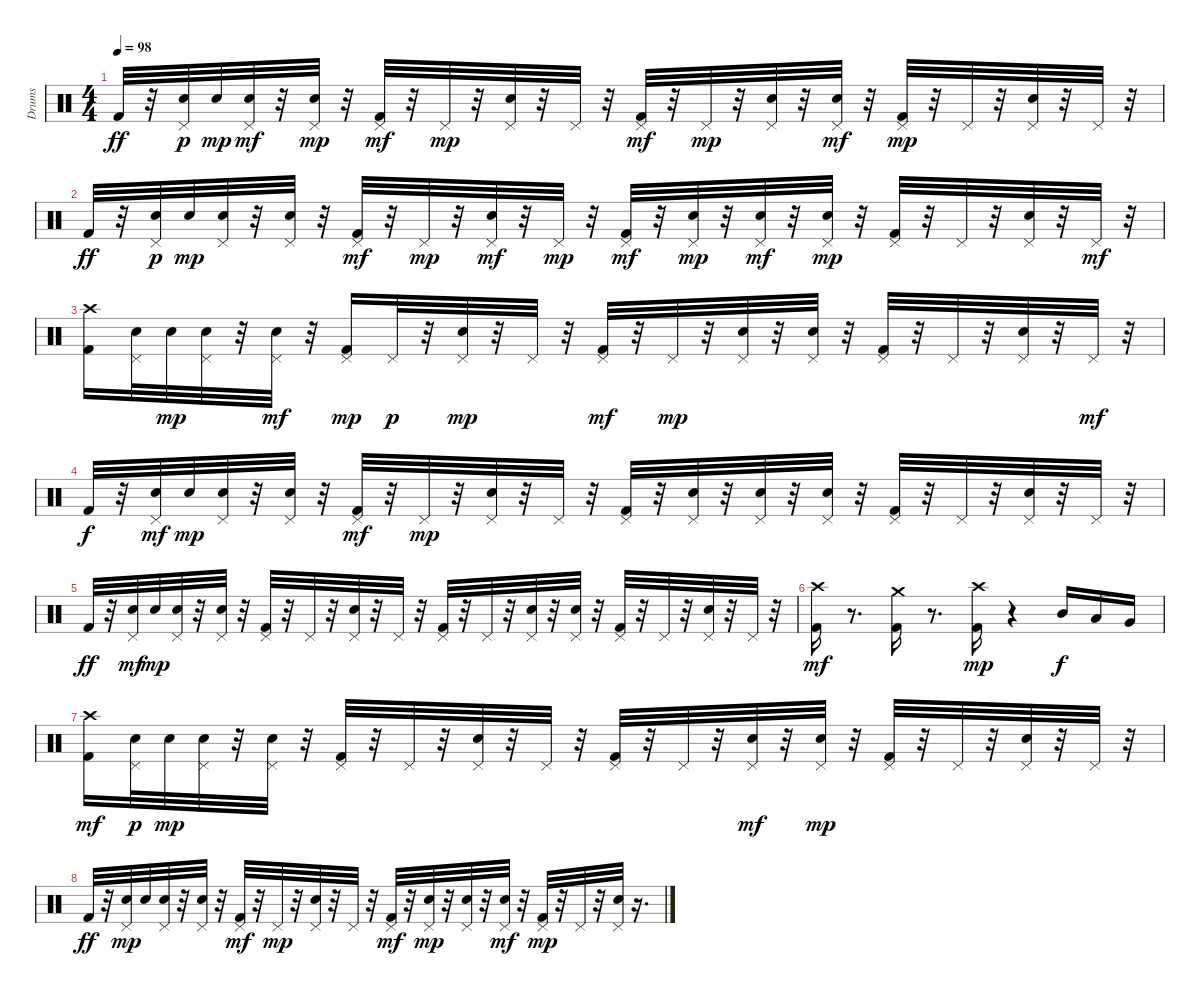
\track ("Drums" "Drums") {instrument percussion}
\staff {score}
\articulation defaults
\ts (4 4)
\tempo 98
\clef neutral
\ks c "Kick (hit) 2".32{dy ff}
r.32 ("Electric Snare (hit)" "Pedal Hi-Hat (hit)").32{dy p} "Electric Snare (hit)".32{dy mp} ("Electric Snare (hit)" "Pedal Hi-Hat (hit)").32{dy mf} r.32 ("Electric Snare (hit)" "Pedal Hi-Hat (hit)").32{dy mp} r.32 ("Kick (hit) 2" "Pedal Hi-Hat (hit)").32{dy mf} r.32 "Pedal Hi-Hat (hit)".32{dy mp} r.32 ("Electric Snare (hit)" "Pedal Hi-Hat (hit)").32 r.32 "Pedal Hi-Hat (hit)".32 r.32 ("Kick (hit) 2" "Pedal Hi-Hat (hit)").32{dy mf} r.32 "Pedal Hi-Hat (hit)".32{dy mp} r.32 ("Electric Snare (hit)" "Pedal Hi-Hat (hit)").32 r.32 ("Electric Snare (hit)" "Pedal Hi-Hat (hit)").32{dy mf} r.32 ("Kick (hit) 2" "Pedal Hi-Hat (hit)").32{dy mp} r.32 "Pedal Hi-Hat (hit)".32 r.32 ("Electric Snare (hit)" "Pedal Hi-Hat (hit)").32 r.32 "Pedal Hi-Hat (hit)".32 r.32 |
"Kick (hit) 2".32{dy ff} r.32 ("Electric Snare (hit)" "Pedal Hi-Hat (hit)").32{dy p} "Electric Snare (hit)".32{dy mp} ("Electric Snare (hit)" "Pedal Hi-Hat (hit)").32 r.32 ("Electric Snare (hit)" "Pedal Hi-Hat (hit)").32 r.32 ("Kick (hit) 2" "Pedal Hi-Hat (hit)").32{dy mf} r.32 "Pedal Hi-Hat (hit)".32{dy mp} r.32 ("Electric Snare (hit)" "Pedal Hi-Hat (hit)").32{dy mf} r.32 "Pedal Hi-Hat (hit)".32{dy mp} r.32 ("Kick (hit) 2" "Pedal Hi-Hat (hit)").32{dy mf} r.32 ("Electric Snare (hit)" "Pedal Hi-Hat (hit)").32{dy mp} r.32 ("Electric Snare (hit)" "Pedal Hi-Hat (hit)").32{dy mf} r.32 ("Electric Snare (hit)" "Pedal Hi-Hat (hit)").32{dy mp} r.32 ("Kick (hit) 2" "Pedal Hi-Hat (hit)").32 r.32 "Pedal Hi-Hat (hit)".32 r.32 ("Electric Snare (hit)" "Pedal Hi-Hat (hit)").32 r.32 "Pedal Hi-Hat (hit)".32{dy mf} r.32 |
("Kick (hit) 2" "Crash high (hit)").16 ("Electric Snare (hit)" "Pedal Hi-Hat (hit)").32 "Electric Snare (hit)".32{dy mp} ("Electric Snare (hit)" "Pedal Hi-Hat (hit)").32 r.32 ("Electric Snare (hit)" "Pedal Hi-Hat (hit)").32{dy mf} r.32 ("Kick (hit) 2" "Pedal Hi-Hat (hit)").16{dy mp} "Pedal Hi-Hat (hit)".32{dy p} r.32 ("Electric Snare (hit)" "Pedal Hi-Hat (hit)").32{dy mp} r.32 "Pedal Hi-Hat (hit)".32 r.32 ("Kick (hit) 2" "Pedal Hi-Hat (hit)").32{dy mf} r.32 "Pedal Hi-Hat (hit)".32{dy mp} r.32 ("Electric Snare (hit)" "Pedal Hi-Hat (hit)").32 r.32 ("Electric Snare (hit)" "Pedal Hi-Hat (hit)").32 r.32 ("Kick (hit) 2" "Pedal Hi-Hat (hit)").32 r.32 "Pedal Hi-Hat (hit)".32 r.32 ("Electric Snare (hit)" "Pedal Hi-Hat (hit)").32 r.32 "Pedal Hi-Hat (hit)".32{dy mf} r.32 |
"Kick (hit) 2".32{dy f} r.32 ("Electric Snare (hit)" "Pedal Hi-Hat (hit)").32{dy mf} "Electric Snare (hit)".32{dy mp} ("Electric Snare (hit)" "Pedal Hi-Hat (hit)").32 r.32 ("Electric Snare (hit)" "Pedal Hi-Hat (hit)").32 r.32 ("Kick (hit) 2" "Pedal Hi-Hat (hit)").32{dy mf} r.32 "Pedal Hi-Hat (hit)".32{dy mp} r.32 ("Electric Snare (hit)" "Pedal Hi-Hat (hit)").32 r.32 "Pedal Hi-Hat (hit)".32 r.32 ("Kick (hit) 2" "Pedal Hi-Hat (hit)").32 r.32 ("Electric Snare (hit)" "Pedal Hi-Hat (hit)").32{volume 12} r.32 ("Electric Snare (hit)" "Pedal Hi-Hat (hit)").32 r.32 ("Electric Snare (hit)" "Pedal Hi-Hat (hit)").32 r.32 ("Kick (hit) 2" "Pedal Hi-Hat (hit)").32 r.32 "Pedal Hi-Hat (hit)".32 r.32 ("Electric Snare (hit)" "Pedal Hi-Hat (hit)").32 r.32 "Pedal Hi-Hat (hit)".32 r.32 |
"Kick (hit) 2".32{dy ff} r.32 ("Electric Snare (hit)" "Pedal Hi-Hat (hit)").32{dy mf} "Electric Snare (hit)".32{dy mp} ("Electric Snare (hit)" "Pedal Hi-Hat (hit)").32 r.32 ("Electric Snare (hit)" "Pedal Hi-Hat (hit)").32 r.32 ("Kick (hit) 2" "Pedal Hi-Hat (hit)").32 r.32 "Pedal Hi-Hat (hit)".32 r.32 ("Electric Snare (hit)" "Pedal Hi-Hat (hit)").32 r.32 "Pedal Hi-Hat (hit)".32 r.32 ("Kick (hit) 2" "Pedal Hi-Hat (hit)").32 r.32 "Pedal Hi-Hat (hit)".32 r.32 ("Electric Snare (hit)" "Pedal Hi-Hat (hit)").32 r.32 ("Electric Snare (hit)" "Pedal Hi-Hat (hit)").32 r.32 ("Kick (hit) 2" "Pedal Hi-Hat (hit)").32 r.32 "Pedal Hi-Hat (hit)".32 r.32 ("Electric Snare (hit)" "Pedal Hi-Hat (hit)").32 r.32 "Pedal Hi-Hat (hit)".32 r.32 |
("Kick (hit) 2" "Crash high (hit)").16{dy mf} r.8{d} ("Kick (hit) 2" "Crash medium (hit)").16 r.8{d} ("Kick (hit) 2" "Crash high (hit)").16{dy mp} r.4 "Mid Tom (hit)".16{dy f} "Low Tom (hit)".16 "Very Low Tom (hit)".16 |
("Kick (hit) 2" "Crash high (hit)").16{dy mf} ("Electric Snare (hit)" "Pedal Hi-Hat (hit)").32{dy p} "Electric Snare (hit)".32{dy mp} ("Electric Snare (hit)" "Pedal Hi-Hat (hit)").32 r.32 ("Electric Snare (hit)" "Pedal Hi-Hat (hit)").32 r.32 ("Kick (hit) 2" "Pedal Hi-Hat (hit)").32 r.32 "Pedal Hi-Hat (hit)".32 r.32 ("Electric Snare (hit)" "Pedal Hi-Hat (hit)").32 r.32 "Pedal Hi-Hat (hit)".32 r.32 ("Kick (hit) 2" "Pedal Hi-Hat (hit)").32 r.32 "Pedal Hi-Hat (hit)".32 r.32 ("Electric Snare (hit)" "Pedal Hi-Hat (hit)").32{dy mf} r.32 ("Electric Snare (hit)" "Pedal Hi-Hat (hit)").32{dy mp} r.32 ("Kick (hit) 2" "Pedal Hi-Hat (hit)").32 r.32 "Pedal Hi-Hat (hit)".32 r.32 ("Electric Snare (hit)" "Pedal Hi-Hat (hit)").32 r.32 "Pedal Hi-Hat (hit)".32 r.32 |
"Kick (hit) 2".32{dy ff} r.32 ("Electric Snare (hit)" "Pedal Hi-Hat (hit)").32{dy mp} "Electric Snare (hit)".32 ("Electric Snare (hit)" "Pedal Hi-Hat (hit)").32 r.32 ("Electric Snare (hit)" "Pedal Hi-Hat (hit)").32 r.32 ("Kick (hit) 2" "Pedal Hi-Hat (hit)").32{dy mf} r.32 "Pedal Hi-Hat (hit)".32{dy mp} r.32 ("Electric Snare (hit)" "Pedal Hi-Hat (hit)").32 r.32 "Pedal Hi-Hat (hit)".32 r.32 ("Kick (hit) 2" "Pedal Hi-Hat (hit)").32{dy mf} r.32 ("Electric Snare (hit)" "Pedal Hi-Hat (hit)").32{dy mp} r.32 ("Electric Snare (hit)" "Pedal Hi-Hat (hit)").32 r.32 ("Electric Snare (hit)" "Pedal Hi-Hat (hit)").32{dy mf} r.32 ("Kick (hit) 2" "Pedal Hi-Hat (hit)").32{dy mp} r.32 "Pedal Hi-Hat (hit)".32 r.32 ("Electric Snare (hit)" "Pedal Hi-Hat (hit)").32 r.16{d}
